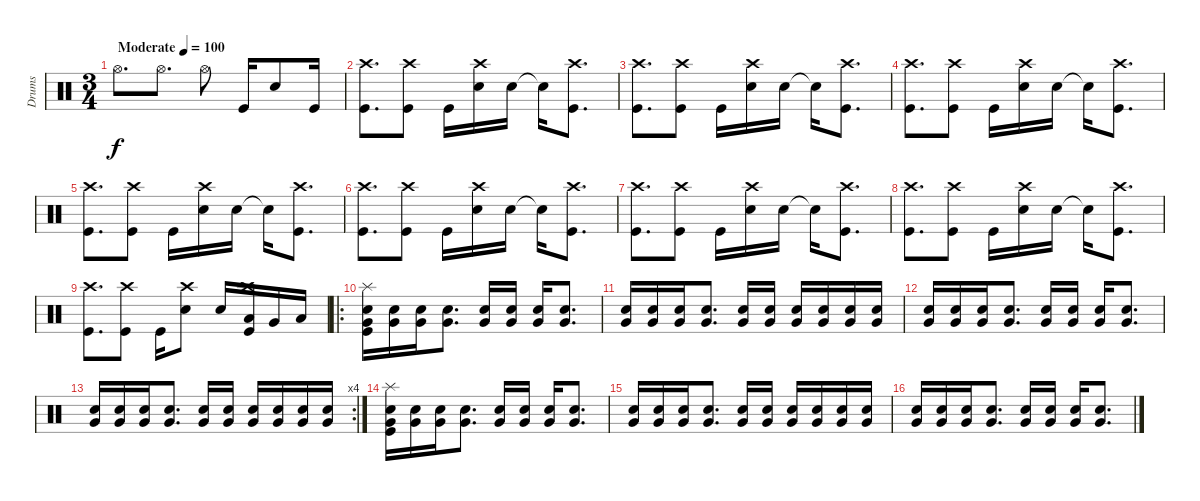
\track ("Drums" "Drums") {instrument percussion}
\staff {score}
\articulation defaults
\ts (3 4)
\tempo (100 "Moderate")
\clef neutral
\ks c "Hi-Hat (open)".8{d dy f} "Hi-Hat (open)".8{d} "Hi-Hat (open)".8 "Kick (hit)".16 "Snare (hit) 2".8 "Kick (hit)".16
|
("Crash high (hit)" "Kick (hit)").8{d} ("Crash high (hit)" "Kick (hit)").8 "Kick (hit)".16 ("Crash high (hit)" "Snare (hit) 2").16 "Snare (hit) 2".16 "Snare (hit) 2"{t}.16 ("Crash high (hit)" "Kick (hit)").8{d} |
("Crash high (hit)" "Kick (hit)").8{d} ("Crash high (hit)" "Kick (hit)").8 "Kick (hit)".16 ("Crash high (hit)" "Snare (hit) 2").16 "Snare (hit) 2".16 "Snare (hit) 2"{t}.16 ("Crash high (hit)" "Kick (hit)").8{d} |
("Crash high (hit)" "Kick (hit)").8{d} ("Crash high (hit)" "Kick (hit)").8 "Kick (hit)".16 ("Crash high (hit)" "Snare (hit) 2").16 "Snare (hit) 2".16 "Snare (hit) 2"{t}.16 ("Crash high (hit)" "Kick (hit)").8{d} |
("Crash high (hit)" "Kick (hit)").8{d} ("Crash high (hit)" "Kick (hit)").8 "Kick (hit)".16 ("Crash high (hit)" "Snare (hit) 2").16 "Snare (hit) 2".16 "Snare (hit) 2"{t}.16 ("Crash high (hit)" "Kick (hit)").8{d} |
("Crash high (hit)" "Kick (hit)").8{d} ("Crash high (hit)" "Kick (hit)").8 "Kick (hit)".16 ("Crash high (hit)" "Snare (hit) 2").16 "Snare (hit) 2".16 "Snare (hit) 2"{t}.16 ("Crash high (hit)" "Kick (hit)").8{d} |
("Crash high (hit)" "Kick (hit)").8{d} ("Crash high (hit)" "Kick (hit)").8 "Kick (hit)".16 ("Crash high (hit)" "Snare (hit) 2").16 "Snare (hit) 2".16 "Snare (hit) 2"{t}.16 ("Crash high (hit)" "Kick (hit)").8{d} |
("Crash high (hit)" "Kick (hit)").8{d} ("Crash high (hit)" "Kick (hit)").8 "Kick (hit)".16 ("Crash high (hit)" "Snare (hit) 2").16 "Snare (hit) 2".16 "Snare (hit) 2"{t}.16 ("Crash high (hit)" "Kick (hit)").8{d} |
("Crash high (hit)" "Kick (hit)").8{d} ("Crash high (hit)" "Kick (hit)").8 "Kick (hit)".16 ("Crash high (hit)" "Snare (hit) 2").8 "Snare (hit) 2".16 ("Crash high (hit)" "Low Tom (hit)" "Kick (hit)").16 "Very Low Tom (hit)".16 "Low Floor Tom (hit)".16 |
\ro
("Splash (hit)" "Snare (hit) 2" "Very Low Tom (hit)" "Kick (hit)").16{volume 8} ("Snare (hit) 2" "Very Low Tom (hit)").16 ("Snare (hit) 2" "Very Low Tom (hit)").16 ("Snare (hit) 2" "Very Low Tom (hit)").8{d} ("Snare (hit) 2" "Very Low Tom (hit)").16 ("Snare (hit) 2" "Very Low Tom (hit)").16 ("Snare (hit) 2" "Very Low Tom (hit)").16 ("Snare (hit) 2" "Very Low Tom (hit)").8{d} |
("Snare (hit) 2" "Very Low Tom (hit)").16 ("Snare (hit) 2" "Very Low Tom (hit)").16 ("Snare (hit) 2" "Very Low Tom (hit)").16 ("Snare (hit) 2" "Very Low Tom (hit)").8{d} ("Snare (hit) 2" "Very Low Tom (hit)").16 ("Snare (hit) 2" "Very Low Tom (hit)").16 ("Snare (hit) 2" "Very Low Tom (hit)").16 ("Snare (hit) 2" "Very Low Tom (hit)").16 ("Snare (hit) 2" "Very Low Tom (hit)").16 ("Snare (hit) 2" "Very Low Tom (hit)").16 |
("Snare (hit) 2" "Very Low Tom (hit)").16 ("Snare (hit) 2" "Very Low Tom (hit)").16 ("Snare (hit) 2" "Very Low Tom (hit)").16 ("Snare (hit) 2" "Very Low Tom (hit)").8{d} ("Snare (hit) 2" "Very Low Tom (hit)").16 ("Snare (hit) 2" "Very Low Tom (hit)").16 ("Snare (hit) 2" "Very Low Tom (hit)").16 ("Snare (hit) 2" "Very Low Tom (hit)").8{d} |
\rc 4
("Snare (hit) 2" "Very Low Tom (hit)").16 ("Snare (hit) 2" "Very Low Tom (hit)").16 ("Snare (hit) 2" "Very Low Tom (hit)").16 ("Snare (hit) 2" "Very Low Tom (hit)").8{d} ("Snare (hit) 2" "Very Low Tom (hit)").16 ("Snare (hit) 2" "Very Low Tom (hit)").16 ("Snare (hit) 2" "Very Low Tom (hit)").16 ("Snare (hit) 2" "Very Low Tom (hit)").16 ("Snare (hit) 2" "Very Low Tom (hit)").16 ("Snare (hit) 2" "Very Low Tom (hit)").16 |
("Splash (hit)" "Snare (hit) 2" "Very Low Tom (hit)" "Kick (hit)").16 ("Snare (hit) 2" "Very Low Tom (hit)").16 ("Snare (hit) 2" "Very Low Tom (hit)").16 ("Snare (hit) 2" "Very Low Tom (hit)").8{d} ("Snare (hit) 2" "Very Low Tom (hit)").16 ("Snare (hit) 2" "Very Low Tom (hit)").16 ("Snare (hit) 2" "Very Low Tom (hit)").16 ("Snare (hit) 2" "Very Low Tom (hit)").8{d} |
("Snare (hit) 2" "Very Low Tom (hit)").16 ("Snare (hit) 2" "Very Low Tom (hit)").16 ("Snare (hit) 2" "Very Low Tom (hit)").16 ("Snare (hit) 2" "Very Low Tom (hit)").8{d} ("Snare (hit) 2" "Very Low Tom (hit)").16 ("Snare (hit) 2" "Very Low Tom (hit)").16 ("Snare (hit) 2" "Very Low Tom (hit)").16 ("Snare (hit) 2" "Very Low Tom (hit)").16 ("Snare (hit) 2" "Very Low Tom (hit)").16 ("Snare (hit) 2" "Very Low Tom (hit)").16 |
("Snare (hit) 2" "Very Low Tom (hit)").16 ("Snare (hit) 2" "Very Low Tom (hit)").16 ("Snare (hit) 2" "Very Low Tom (hit)").16 ("Snare (hit) 2" "Very Low Tom (hit)").8{d} ("Snare (hit) 2" "Very Low Tom (hit)").16 ("Snare (hit) 2" "Very Low Tom (hit)").16 ("Snare (hit) 2" "Very Low Tom (hit)").16 ("Snare (hit) 2" "Very Low Tom (hit)").8{d}
